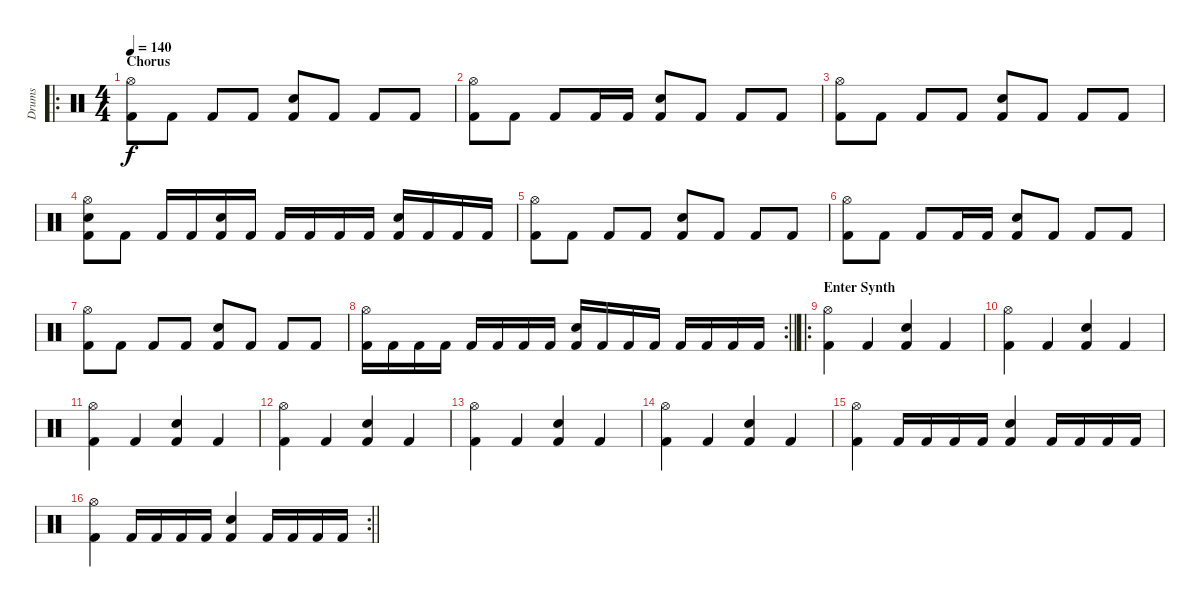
\track ("Drums" "Drums") {instrument percussion}
\staff {score}
\articulation defaults
\ro
\ts (4 4)
\section ("" "Chorus")
\tempo 140
\clef neutral
\ks c
("Hi-Hat (open)" "Kick (hit) 2").8{dy f} "Kick (hit) 2".8 "Kick (hit) 2".8 "Kick (hit) 2".8 ("Snare (hit) 2" "Kick (hit) 2").8 "Kick (hit) 2".8 "Kick (hit) 2".8 "Kick (hit) 2".8 |
("Hi-Hat (open)" "Kick (hit) 2").8 "Kick (hit) 2".8 "Kick (hit) 2".8 "Kick (hit) 2".16 "Kick (hit) 2".16 ("Snare (hit) 2" "Kick (hit) 2").8 "Kick (hit) 2".8 "Kick (hit) 2".8 "Kick (hit) 2".8 |
("Hi-Hat (open)" "Kick (hit) 2").8 "Kick (hit) 2".8 "Kick (hit) 2".8 "Kick (hit) 2".8 ("Snare (hit) 2" "Kick (hit) 2").8 "Kick (hit) 2".8 "Kick (hit) 2".8 "Kick (hit) 2".8 |
("Hi-Hat (open)" "Snare (hit) 2" "Kick (hit) 2").8 "Kick (hit) 2".8 "Kick (hit) 2".16 "Kick (hit) 2".16 ("Snare (hit) 2" "Kick (hit) 2").16 "Kick (hit) 2".16 "Kick (hit) 2".16 "Kick (hit) 2".16 "Kick (hit) 2".16 "Kick (hit) 2".16 ("Snare (hit) 2" "Kick (hit) 2").16 "Kick (hit) 2".16 "Kick (hit) 2".16 "Kick (hit) 2".16 |
("Hi-Hat (open)" "Kick (hit) 2").8 "Kick (hit) 2".8 "Kick (hit) 2".8 "Kick (hit) 2".8 ("Snare (hit) 2" "Kick (hit) 2").8 "Kick (hit) 2".8 "Kick (hit) 2".8 "Kick (hit) 2".8 |
("Hi-Hat (open)" "Kick (hit) 2").8 "Kick (hit) 2".8 "Kick (hit) 2".8 "Kick (hit) 2".16 "Kick (hit) 2".16 ("Snare (hit) 2" "Kick (hit) 2").8 "Kick (hit) 2".8 "Kick (hit) 2".8 "Kick (hit) 2".8 |
("Hi-Hat (open)" "Kick (hit) 2").8 "Kick (hit) 2".8 "Kick (hit) 2".8 "Kick (hit) 2".8 ("Snare (hit) 2" "Kick (hit) 2").8 "Kick (hit) 2".8 "Kick (hit) 2".8 "Kick (hit) 2".8 |
\rc 2
\barLineRight lightlight
("Hi-Hat (open)" "Kick (hit) 2").16 "Kick (hit) 2".16 "Kick (hit) 2".16 "Kick (hit) 2".16 "Kick (hit) 2".16 "Kick (hit) 2".16 "Kick (hit) 2".16 "Kick (hit) 2".16 ("Snare (hit) 2" "Kick (hit) 2").16 "Kick (hit) 2".16 "Kick (hit) 2".16 "Kick (hit) 2".16 "Kick (hit) 2".16 "Kick (hit) 2".16 "Kick (hit) 2".16 "Kick (hit) 2".16 |
\ro
\section ("" "Enter Synth")
("Kick (hit) 2" "Hi-Hat (open)").4 "Kick (hit) 2".4 ("Kick (hit) 2" "Snare (hit) 2").4 "Kick (hit) 2".4 |
("Kick (hit) 2" "Hi-Hat (open)").4 "Kick (hit) 2".4 ("Kick (hit) 2" "Snare (hit) 2").4 "Kick (hit) 2".4 |
("Kick (hit) 2" "Hi-Hat (open)").4 "Kick (hit) 2".4 ("Kick (hit) 2" "Snare (hit) 2").4 "Kick (hit) 2".4 |
("Kick (hit) 2" "Hi-Hat (open)").4 "Kick (hit) 2".4 ("Kick (hit) 2" "Snare (hit) 2").4 "Kick (hit) 2".4 |
("Kick (hit) 2" "Hi-Hat (open)").4 "Kick (hit) 2".4 ("Kick (hit) 2" "Snare (hit) 2").4 "Kick (hit) 2".4 |
("Kick (hit) 2" "Hi-Hat (open)").4 "Kick (hit) 2".4 ("Kick (hit) 2" "Snare (hit) 2").4 "Kick (hit) 2".4 |
("Hi-Hat (open)" "Kick (hit) 2").4 "Kick (hit) 2".16 "Kick (hit) 2".16 "Kick (hit) 2".16 "Kick (hit) 2".16 ("Snare (hit) 2" "Kick (hit) 2").4 "Kick (hit) 2".16 "Kick (hit) 2".16 "Kick (hit) 2".16 "Kick (hit) 2".16 |
\rc 2
\barLineRight lightlight
("Hi-Hat (open)" "Kick (hit) 2").4 "Kick (hit) 2".16 "Kick (hit) 2".16 "Kick (hit) 2".16 "Kick (hit) 2".16 ("Snare (hit) 2" "Kick (hit) 2").4 "Kick (hit) 2".16 "Kick (hit) 2".16 "Kick (hit) 2".16 "Kick (hit) 2".16
